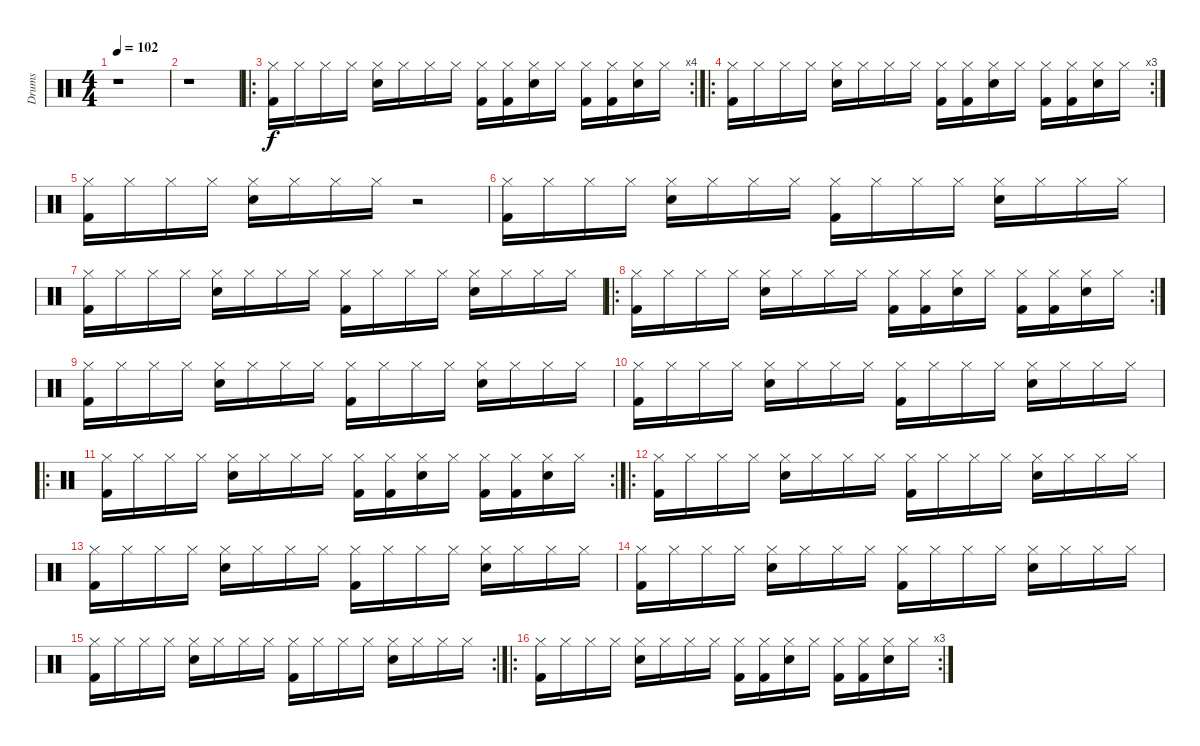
\track ("Drums" "Drums") {instrument percussion}
\staff {score}
\articulation defaults
\ts (4 4)
\tempo 102
\clef neutral
\ks c
r.1{dy f} |
r.1 |
\ro
\rc 4
("Hi-Hat (closed)" "Kick (hit) 2").16 "Hi-Hat (closed)".16 "Hi-Hat (closed)".16 "Hi-Hat (closed)".16 ("Hi-Hat (closed)" "Electric Snare (hit)").16 "Hi-Hat (closed)".16 "Hi-Hat (closed)".16 "Hi-Hat (closed)".16 ("Hi-Hat (closed)" "Kick (hit) 2").16 ("Hi-Hat (closed)" "Kick (hit) 2").16 ("Hi-Hat (closed)" "Electric Snare (hit)").16 "Hi-Hat (closed)".16 ("Hi-Hat (closed)" "Kick (hit) 2").16 ("Hi-Hat (closed)" "Kick (hit) 2").16 ("Hi-Hat (closed)" "Electric Snare (hit)").16 "Hi-Hat (closed)".16 |
\ro
\rc 3
("Hi-Hat (closed)" "Kick (hit) 2").16 "Hi-Hat (closed)".16 "Hi-Hat (closed)".16 "Hi-Hat (closed)".16 ("Hi-Hat (closed)" "Electric Snare (hit)").16 "Hi-Hat (closed)".16 "Hi-Hat (closed)".16 "Hi-Hat (closed)".16 ("Hi-Hat (closed)" "Kick (hit) 2").16 ("Hi-Hat (closed)" "Kick (hit) 2").16 ("Hi-Hat (closed)" "Electric Snare (hit)").16 "Hi-Hat (closed)".16 ("Hi-Hat (closed)" "Kick (hit) 2").16 ("Hi-Hat (closed)" "Kick (hit) 2").16 ("Hi-Hat (closed)" "Electric Snare (hit)").16 "Hi-Hat (closed)".16 |
("Hi-Hat (closed)" "Kick (hit) 2").16 "Hi-Hat (closed)".16 "Hi-Hat (closed)".16 "Hi-Hat (closed)".16 ("Hi-Hat (closed)" "Electric Snare (hit)").16 "Hi-Hat (closed)".16 "Hi-Hat (closed)".16 "Hi-Hat (closed)".16 r.2 |
("Hi-Hat (closed)" "Kick (hit) 2").16 "Hi-Hat (closed)".16 "Hi-Hat (closed)".16 "Hi-Hat (closed)".16 ("Hi-Hat (closed)" "Electric Snare (hit)").16 "Hi-Hat (closed)".16 "Hi-Hat (closed)".16 "Hi-Hat (closed)".16 ("Hi-Hat (closed)" "Kick (hit) 2").16 "Hi-Hat (closed)".16 "Hi-Hat (closed)".16 "Hi-Hat (closed)".16 ("Hi-Hat (closed)" "Electric Snare (hit)").16 "Hi-Hat (closed)".16 "Hi-Hat (closed)".16 "Hi-Hat (closed)".16 |
("Hi-Hat (closed)" "Kick (hit) 2").16 "Hi-Hat (closed)".16 "Hi-Hat (closed)".16 "Hi-Hat (closed)".16 ("Hi-Hat (closed)" "Electric Snare (hit)").16 "Hi-Hat (closed)".16 "Hi-Hat (closed)".16 "Hi-Hat (closed)".16 ("Hi-Hat (closed)" "Kick (hit) 2").16 "Hi-Hat (closed)".16 "Hi-Hat (closed)".16 "Hi-Hat (closed)".16 ("Hi-Hat (closed)" "Electric Snare (hit)").16 "Hi-Hat (closed)".16 "Hi-Hat (closed)".16 "Hi-Hat (closed)".16 |
\ro
\rc 2
("Hi-Hat (closed)" "Kick (hit) 2").16 "Hi-Hat (closed)".16 "Hi-Hat (closed)".16 "Hi-Hat (closed)".16 ("Hi-Hat (closed)" "Electric Snare (hit)").16 "Hi-Hat (closed)".16 "Hi-Hat (closed)".16 "Hi-Hat (closed)".16 ("Hi-Hat (closed)" "Kick (hit) 2").16 ("Hi-Hat (closed)" "Kick (hit) 2").16 ("Hi-Hat (closed)" "Electric Snare (hit)").16 "Hi-Hat (closed)".16 ("Hi-Hat (closed)" "Kick (hit) 2").16 ("Hi-Hat (closed)" "Kick (hit) 2").16 ("Hi-Hat (closed)" "Electric Snare (hit)").16 "Hi-Hat (closed)".16 |
("Hi-Hat (closed)" "Kick (hit) 2").16 "Hi-Hat (closed)".16 "Hi-Hat (closed)".16 "Hi-Hat (closed)".16 ("Hi-Hat (closed)" "Electric Snare (hit)").16 "Hi-Hat (closed)".16 "Hi-Hat (closed)".16 "Hi-Hat (closed)".16 ("Hi-Hat (closed)" "Kick (hit) 2").16 "Hi-Hat (closed)".16 "Hi-Hat (closed)".16 "Hi-Hat (closed)".16 ("Hi-Hat (closed)" "Electric Snare (hit)").16 "Hi-Hat (closed)".16 "Hi-Hat (closed)".16 "Hi-Hat (closed)".16 |
("Hi-Hat (closed)" "Kick (hit) 2").16 "Hi-Hat (closed)".16 "Hi-Hat (closed)".16 "Hi-Hat (closed)".16 ("Hi-Hat (closed)" "Electric Snare (hit)").16 "Hi-Hat (closed)".16 "Hi-Hat (closed)".16 "Hi-Hat (closed)".16 ("Hi-Hat (closed)" "Kick (hit) 2").16 "Hi-Hat (closed)".16 "Hi-Hat (closed)".16 "Hi-Hat (closed)".16 ("Hi-Hat (closed)" "Electric Snare (hit)").16 "Hi-Hat (closed)".16 "Hi-Hat (closed)".16 "Hi-Hat (closed)".16 |
\ro
\rc 2
("Hi-Hat (closed)" "Kick (hit) 2").16 "Hi-Hat (closed)".16 "Hi-Hat (closed)".16 "Hi-Hat (closed)".16 ("Hi-Hat (closed)" "Electric Snare (hit)").16 "Hi-Hat (closed)".16 "Hi-Hat (closed)".16 "Hi-Hat (closed)".16 ("Hi-Hat (closed)" "Kick (hit) 2").16 ("Hi-Hat (closed)" "Kick (hit) 2").16 ("Hi-Hat (closed)" "Electric Snare (hit)").16 "Hi-Hat (closed)".16 ("Hi-Hat (closed)" "Kick (hit) 2").16 ("Hi-Hat (closed)" "Kick (hit) 2").16 ("Hi-Hat (closed)" "Electric Snare (hit)").16 "Hi-Hat (closed)".16 |
\ro
("Hi-Hat (closed)" "Kick (hit) 2").16 "Hi-Hat (closed)".16 "Hi-Hat (closed)".16 "Hi-Hat (closed)".16 ("Hi-Hat (closed)" "Electric Snare (hit)").16 "Hi-Hat (closed)".16 "Hi-Hat (closed)".16 "Hi-Hat (closed)".16 ("Hi-Hat (closed)" "Kick (hit) 2").16 "Hi-Hat (closed)".16 "Hi-Hat (closed)".16 "Hi-Hat (closed)".16 ("Hi-Hat (closed)" "Electric Snare (hit)").16 "Hi-Hat (closed)".16 "Hi-Hat (closed)".16 "Hi-Hat (closed)".16 |
("Hi-Hat (closed)" "Kick (hit) 2").16 "Hi-Hat (closed)".16 "Hi-Hat (closed)".16 "Hi-Hat (closed)".16 ("Hi-Hat (closed)" "Electric Snare (hit)").16 "Hi-Hat (closed)".16 "Hi-Hat (closed)".16 "Hi-Hat (closed)".16 ("Hi-Hat (closed)" "Kick (hit) 2").16 "Hi-Hat (closed)".16 "Hi-Hat (closed)".16 "Hi-Hat (closed)".16 ("Hi-Hat (closed)" "Electric Snare (hit)").16 "Hi-Hat (closed)".16 "Hi-Hat (closed)".16 "Hi-Hat (closed)".16 |
("Hi-Hat (closed)" "Kick (hit) 2").16 "Hi-Hat (closed)".16 "Hi-Hat (closed)".16 "Hi-Hat (closed)".16 ("Hi-Hat (closed)" "Electric Snare (hit)").16 "Hi-Hat (closed)".16 "Hi-Hat (closed)".16 "Hi-Hat (closed)".16 ("Hi-Hat (closed)" "Kick (hit) 2").16 "Hi-Hat (closed)".16 "Hi-Hat (closed)".16 "Hi-Hat (closed)".16 ("Hi-Hat (closed)" "Electric Snare (hit)").16 "Hi-Hat (closed)".16 "Hi-Hat (closed)".16 "Hi-Hat (closed)".16 |
\rc 2
("Hi-Hat (closed)" "Kick (hit) 2").16 "Hi-Hat (closed)".16 "Hi-Hat (closed)".16 "Hi-Hat (closed)".16 ("Hi-Hat (closed)" "Electric Snare (hit)").16 "Hi-Hat (closed)".16 "Hi-Hat (closed)".16 "Hi-Hat (closed)".16 ("Hi-Hat (closed)" "Kick (hit) 2").16 "Hi-Hat (closed)".16 "Hi-Hat (closed)".16 "Hi-Hat (closed)".16 ("Hi-Hat (closed)" "Electric Snare (hit)").16 "Hi-Hat (closed)".16 "Hi-Hat (closed)".16 "Hi-Hat (closed)".16 |
\ro
\rc 3
("Hi-Hat (closed)" "Kick (hit) 2").16 "Hi-Hat (closed)".16 "Hi-Hat (closed)".16 "Hi-Hat (closed)".16 ("Hi-Hat (closed)" "Electric Snare (hit)").16 "Hi-Hat (closed)".16 "Hi-Hat (closed)".16 "Hi-Hat (closed)".16 ("Hi-Hat (closed)" "Kick (hit) 2").16 ("Hi-Hat (closed)" "Kick (hit) 2").16 ("Hi-Hat (closed)" "Electric Snare (hit)").16 "Hi-Hat (closed)".16 ("Hi-Hat (closed)" "Kick (hit) 2").16 ("Hi-Hat (closed)" "Kick (hit) 2").16 ("Hi-Hat (closed)" "Electric Snare (hit)").16 "Hi-Hat (closed)".16
